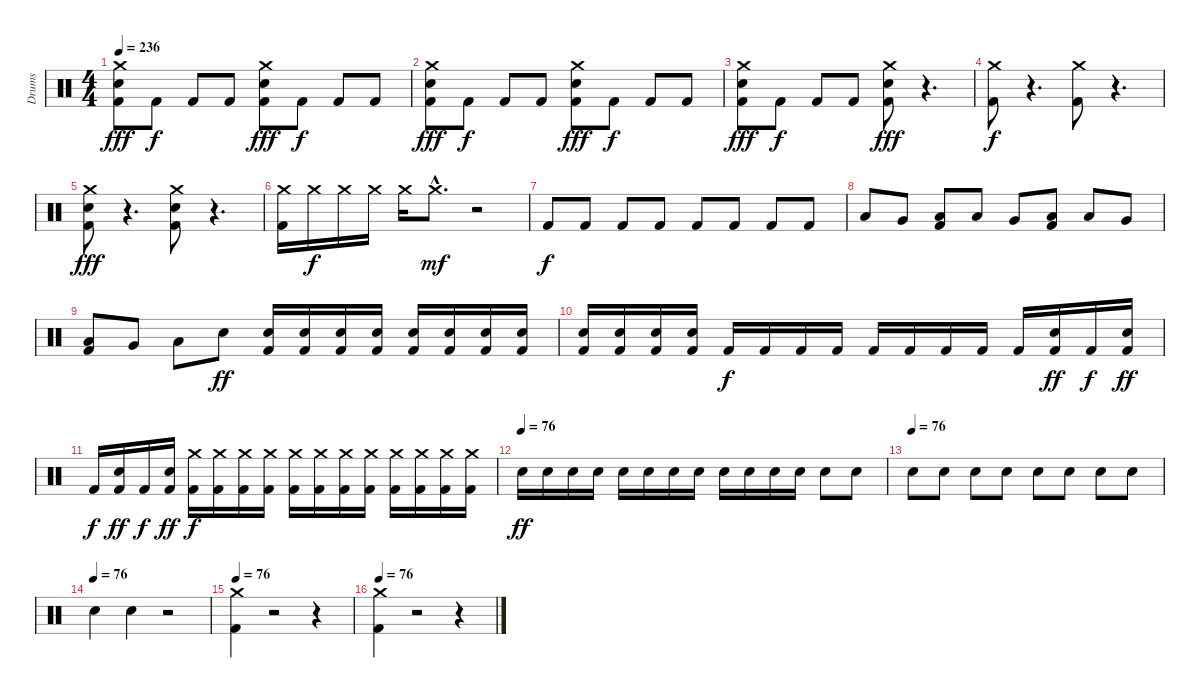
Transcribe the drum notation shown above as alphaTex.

\track ("Drums" "Drums") {instrument percussion}
\staff {score}
\articulation defaults
\ts (4 4)
\tempo 236
\clef neutral
\ks c
("Crash medium (hit)" "Kick (hit) 2" "Electric Snare (hit)").8{dy fff} "Kick (hit) 2".8{dy f} "Kick (hit) 2".8 "Kick (hit) 2".8 ("Crash medium (hit)" "Kick (hit) 2" "Electric Snare (hit)").8{dy fff} "Kick (hit) 2".8{dy f} "Kick (hit) 2".8 "Kick (hit) 2".8 |
("Crash medium (hit)" "Kick (hit) 2" "Electric Snare (hit)").8{dy fff} "Kick (hit) 2".8{dy f} "Kick (hit) 2".8 "Kick (hit) 2".8 ("Crash medium (hit)" "Kick (hit) 2" "Electric Snare (hit)").8{dy fff} "Kick (hit) 2".8{dy f} "Kick (hit) 2".8 "Kick (hit) 2".8 |
("Crash medium (hit)" "Kick (hit) 2" "Electric Snare (hit)").8{dy fff} "Kick (hit) 2".8{dy f} "Kick (hit) 2".8 "Kick (hit) 2".8 ("Crash medium (hit)" "Kick (hit) 2" "Electric Snare (hit)").8{dy fff} r.4{d} |
("Crash medium (hit)" "Kick (hit) 2").8{dy f} r.4{d} ("Crash medium (hit)" "Kick (hit) 2").8 r.4{d} |
("Crash medium (hit)" "Kick (hit) 2" "Electric Snare (hit)").8{dy fff} r.4{d} ("Crash medium (hit)" "Kick (hit) 2" "Electric Snare (hit)").8 r.4{d} |
("Crash medium (hit)" "Kick (hit) 2").16 "Crash medium (hit)".16{dy f} "Crash medium (hit)".16 "Crash medium (hit)".16 "Crash medium (hit)".16 "Crash medium (hit)"{hac}.8{d dy mf} r.2 |
"Kick (hit) 2".8{dy f} "Kick (hit) 2".8 "Kick (hit) 2".8 "Kick (hit) 2".8 "Kick (hit) 2".8 "Kick (hit) 2".8 "Kick (hit) 2".8 "Kick (hit) 2".8 |
"Low Tom (hit)".8 "Very Low Tom (hit)".8 ("Kick (hit) 2" "Low Floor Tom (hit)").8 "Low Tom (hit)".8 "Very Low Tom (hit)".8 ("Kick (hit) 2" "Low Floor Tom (hit)").8 "Low Tom (hit)".8 "Very Low Tom (hit)".8 |
("Low Floor Tom (hit)" "Kick (hit) 2").8 "Very Low Tom (hit)".8 "Low Floor Tom (hit)".8 "Electric Snare (hit)".8{dy ff} ("Kick (hit) 2" "Electric Snare (hit)").16 ("Kick (hit) 2" "Electric Snare (hit)").16 ("Kick (hit) 2" "Electric Snare (hit)").16 ("Kick (hit) 2" "Electric Snare (hit)").16 ("Kick (hit) 2" "Electric Snare (hit)").16 ("Kick (hit) 2" "Electric Snare (hit)").16 ("Kick (hit) 2" "Electric Snare (hit)").16 ("Kick (hit) 2" "Electric Snare (hit)").16 |
("Kick (hit) 2" "Electric Snare (hit)").16 ("Kick (hit) 2" "Electric Snare (hit)").16 ("Kick (hit) 2" "Electric Snare (hit)").16 ("Kick (hit) 2" "Electric Snare (hit)").16 "Kick (hit) 2".16{dy f} "Kick (hit) 2".16 "Kick (hit) 2".16 "Kick (hit) 2".16 "Kick (hit) 2".16 "Kick (hit) 2".16 "Kick (hit) 2".16 "Kick (hit) 2".16 "Kick (hit) 2".16 ("Kick (hit) 2" "Electric Snare (hit)").16{dy ff} "Kick (hit) 2".16{dy f} ("Kick (hit) 2" "Electric Snare (hit)").16{dy ff} |
"Kick (hit) 2".16{dy f} ("Kick (hit) 2" "Electric Snare (hit)").16{dy ff} "Kick (hit) 2".16{dy f} ("Kick (hit) 2" "Electric Snare (hit)").16{dy ff} ("Kick (hit) 2" "Crash medium (hit)").16{dy f} ("Kick (hit) 2" "Crash medium (hit)").16 ("Kick (hit) 2" "Crash medium (hit)").16 ("Kick (hit) 2" "Crash medium (hit)").16 ("Kick (hit) 2" "Crash medium (hit)").16 ("Kick (hit) 2" "Crash medium (hit)").16 ("Kick (hit) 2" "Crash medium (hit)").16 ("Kick (hit) 2" "Crash medium (hit)").16 ("Kick (hit) 2" "Crash medium (hit)").16 ("Kick (hit) 2" "Crash medium (hit)").16 ("Kick (hit) 2" "Crash medium (hit)").16 ("Kick (hit) 2" "Crash medium (hit)").16 |
\tempo (76)
"Electric Snare (hit)".16{dy ff} "Electric Snare (hit)".16 "Electric Snare (hit)".16 "Electric Snare (hit)".16 "Electric Snare (hit)".16 "Electric Snare (hit)".16 "Electric Snare (hit)".16 "Electric Snare (hit)".16 "Electric Snare (hit)".16 "Electric Snare (hit)".16 "Electric Snare (hit)".16 "Electric Snare (hit)".16 "Electric Snare (hit)".8 "Electric Snare (hit)".8 |
\tempo (76)
"Electric Snare (hit)".8 "Electric Snare (hit)".8 "Electric Snare (hit)".8 "Electric Snare (hit)".8 "Electric Snare (hit)".8 "Electric Snare (hit)".8 "Electric Snare (hit)".8 "Electric Snare (hit)".8 |
\tempo (76)
"Electric Snare (hit)".4 "Electric Snare (hit)".4 r.2 |
\tempo 76
("Crash medium (hit)" "Kick (hit) 2").4 r.2 r.4 |
\tempo 76
("Crash medium (hit)" "Kick (hit) 2").4 r.2 r.4
